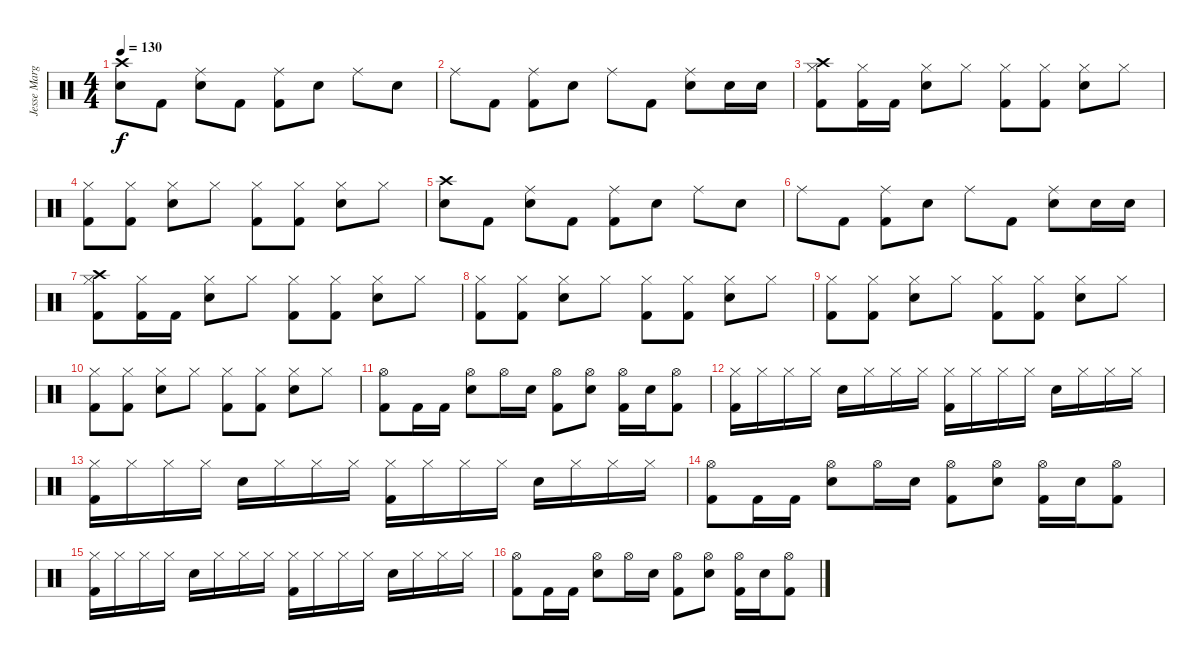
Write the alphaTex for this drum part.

\track ("Jesse Margera" "Jesse Marg") {instrument percussion}
\staff {score}
\articulation defaults
\ts (4 4)
\tempo 130
\clef neutral
\ks c
("Crash high (hit)" "Electric Snare (hit)").8{dy f} "Kick (hit) 2".8 ("Ride (middle)" "Electric Snare (hit)").8 "Kick (hit) 2".8 ("Ride (middle)" "Kick (hit) 2").8 "Electric Snare (hit)".8 "Ride (middle)".8 "Electric Snare (hit)".8 |
"Ride (middle)".8 "Kick (hit) 2".8 ("Ride (middle)" "Kick (hit) 2").8 "Electric Snare (hit)".8 "Ride (middle)".8 "Kick (hit) 2".8 ("Ride (middle)" "Electric Snare (hit)").8 "Electric Snare (hit)".16 "Electric Snare (hit)".16 |
("Hi-Hat (closed)" "Crash high (hit)" "Kick (hit) 2").8 ("Hi-Hat (closed)" "Kick (hit) 2").16 "Kick (hit) 2".16 ("Hi-Hat (closed)" "Electric Snare (hit)").8 "Hi-Hat (closed)".8 ("Hi-Hat (closed)" "Kick (hit) 2").8 ("Hi-Hat (closed)" "Kick (hit) 2").8 ("Hi-Hat (closed)" "Electric Snare (hit)").8 "Hi-Hat (closed)".8 |
("Hi-Hat (closed)" "Kick (hit) 2").8 ("Hi-Hat (closed)" "Kick (hit) 2").8 ("Hi-Hat (closed)" "Electric Snare (hit)").8 "Hi-Hat (closed)".8 ("Hi-Hat (closed)" "Kick (hit) 2").8 ("Hi-Hat (closed)" "Kick (hit) 2").8 ("Hi-Hat (closed)" "Electric Snare (hit)").8 "Hi-Hat (closed)".8 |
("Crash high (hit)" "Electric Snare (hit)").8 "Kick (hit) 2".8 ("Ride (middle)" "Electric Snare (hit)").8 "Kick (hit) 2".8 ("Ride (middle)" "Kick (hit) 2").8 "Electric Snare (hit)".8 "Ride (middle)".8 "Electric Snare (hit)".8 |
"Ride (middle)".8 "Kick (hit) 2".8 ("Ride (middle)" "Kick (hit) 2").8 "Electric Snare (hit)".8 "Ride (middle)".8 "Kick (hit) 2".8 ("Ride (middle)" "Electric Snare (hit)").8 "Electric Snare (hit)".16 "Electric Snare (hit)".16 |
("Hi-Hat (closed)" "Crash high (hit)" "Kick (hit) 2").8 ("Hi-Hat (closed)" "Kick (hit) 2").16 "Kick (hit) 2".16 ("Hi-Hat (closed)" "Electric Snare (hit)").8 "Hi-Hat (closed)".8 ("Hi-Hat (closed)" "Kick (hit) 2").8 ("Hi-Hat (closed)" "Kick (hit) 2").8 ("Hi-Hat (closed)" "Electric Snare (hit)").8 "Hi-Hat (closed)".8 |
("Hi-Hat (closed)" "Kick (hit) 2").8 ("Hi-Hat (closed)" "Kick (hit) 2").8 ("Hi-Hat (closed)" "Electric Snare (hit)").8 "Hi-Hat (closed)".8 ("Hi-Hat (closed)" "Kick (hit) 2").8 ("Hi-Hat (closed)" "Kick (hit) 2").8 ("Hi-Hat (closed)" "Electric Snare (hit)").8 "Hi-Hat (closed)".8 |
("Hi-Hat (closed)" "Kick (hit) 2").8 ("Hi-Hat (closed)" "Kick (hit) 2").8 ("Hi-Hat (closed)" "Electric Snare (hit)").8 "Hi-Hat (closed)".8 ("Hi-Hat (closed)" "Kick (hit) 2").8 ("Hi-Hat (closed)" "Kick (hit) 2").8 ("Hi-Hat (closed)" "Electric Snare (hit)").8 "Hi-Hat (closed)".8 |
("Hi-Hat (closed)" "Kick (hit) 2").8 ("Hi-Hat (closed)" "Kick (hit) 2").8 ("Hi-Hat (closed)" "Electric Snare (hit)").8 "Hi-Hat (closed)".8 ("Hi-Hat (closed)" "Kick (hit) 2").8 ("Hi-Hat (closed)" "Kick (hit) 2").8 ("Hi-Hat (closed)" "Electric Snare (hit)").8 "Hi-Hat (closed)".8 |
("Hi-Hat (open)" "Kick (hit) 2").8 "Kick (hit) 2".16 "Kick (hit) 2".16 ("Hi-Hat (open)" "Electric Snare (hit)").8 "Hi-Hat (open)".16 "Electric Snare (hit)".16 ("Hi-Hat (open)" "Kick (hit) 2").8 ("Hi-Hat (open)" "Electric Snare (hit)").8 ("Hi-Hat (open)" "Kick (hit) 2").16 "Electric Snare (hit)".16 ("Hi-Hat (open)" "Kick (hit) 2").8 |
("Hi-Hat (closed)" "Kick (hit) 2").16 "Hi-Hat (closed)".16 "Hi-Hat (closed)".16 "Hi-Hat (closed)".16 "Electric Snare (hit)".16 "Hi-Hat (closed)".16 "Hi-Hat (closed)".16 "Hi-Hat (closed)".16 ("Hi-Hat (closed)" "Kick (hit) 2").16 "Hi-Hat (closed)".16 "Hi-Hat (closed)".16 "Hi-Hat (closed)".16 "Electric Snare (hit)".16 "Hi-Hat (closed)".16 "Hi-Hat (closed)".16 "Hi-Hat (closed)".16 |
("Hi-Hat (closed)" "Kick (hit) 2").16 "Hi-Hat (closed)".16 "Hi-Hat (closed)".16 "Hi-Hat (closed)".16 "Electric Snare (hit)".16 "Hi-Hat (closed)".16 "Hi-Hat (closed)".16 "Hi-Hat (closed)".16 ("Hi-Hat (closed)" "Kick (hit) 2").16 "Hi-Hat (closed)".16 "Hi-Hat (closed)".16 "Hi-Hat (closed)".16 "Electric Snare (hit)".16 "Hi-Hat (closed)".16 "Hi-Hat (closed)".16 "Hi-Hat (closed)".16 |
("Hi-Hat (open)" "Kick (hit) 2").8 "Kick (hit) 2".16 "Kick (hit) 2".16 ("Hi-Hat (open)" "Electric Snare (hit)").8 "Hi-Hat (open)".16 "Electric Snare (hit)".16 ("Hi-Hat (open)" "Kick (hit) 2").8 ("Hi-Hat (open)" "Electric Snare (hit)").8 ("Hi-Hat (open)" "Kick (hit) 2").16 "Electric Snare (hit)".16 ("Hi-Hat (open)" "Kick (hit) 2").8 |
("Hi-Hat (closed)" "Kick (hit) 2").16 "Hi-Hat (closed)".16 "Hi-Hat (closed)".16 "Hi-Hat (closed)".16 "Electric Snare (hit)".16 "Hi-Hat (closed)".16 "Hi-Hat (closed)".16 "Hi-Hat (closed)".16 ("Hi-Hat (closed)" "Kick (hit) 2").16 "Hi-Hat (closed)".16 "Hi-Hat (closed)".16 "Hi-Hat (closed)".16 "Electric Snare (hit)".16 "Hi-Hat (closed)".16 "Hi-Hat (closed)".16 "Hi-Hat (closed)".16 |
("Hi-Hat (open)" "Kick (hit) 2").8 "Kick (hit) 2".16 "Kick (hit) 2".16 ("Hi-Hat (open)" "Electric Snare (hit)").8 "Hi-Hat (open)".16 "Electric Snare (hit)".16 ("Hi-Hat (open)" "Kick (hit) 2").8 ("Hi-Hat (open)" "Electric Snare (hit)").8 ("Hi-Hat (open)" "Kick (hit) 2").16 "Electric Snare (hit)".16 ("Hi-Hat (open)" "Kick (hit) 2").8
